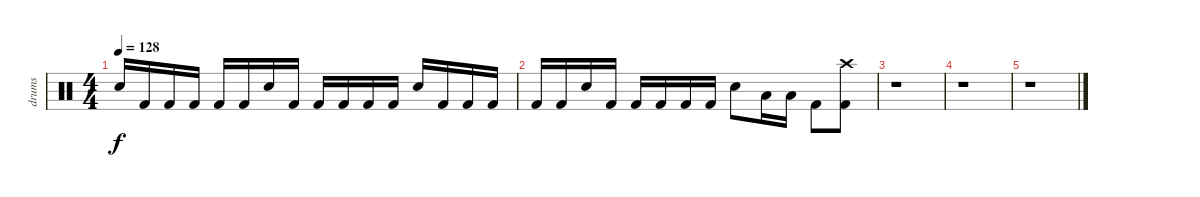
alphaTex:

\track ("drums" "drums") {instrument percussion}
\staff {score}
\articulation defaults
\ts (4 4)
\tempo 128
\clef neutral
\ks c "Electric Snare (hit)".16{dy f} "Kick (hit) 2".16 "Kick (hit) 2".16 "Kick (hit) 2".16 "Kick (hit) 2".16 "Kick (hit) 2".16 "Electric Snare (hit)".16 "Kick (hit) 2".16 "Kick (hit) 2".16 "Kick (hit) 2".16 "Kick (hit) 2".16 "Kick (hit) 2".16 "Electric Snare (hit)".16 "Kick (hit) 2".16 "Kick (hit) 2".16 "Kick (hit) 2".16
|
"Kick (hit) 2".16 "Kick (hit) 2".16 "Electric Snare (hit)".16 "Kick (hit) 2".16 "Kick (hit) 2".16 "Kick (hit) 2".16 "Kick (hit) 2".16 "Kick (hit) 2".16 "Electric Snare (hit)".8 "Low Tom (hit)".16 "Low Tom (hit)".16 "Kick (hit) 2".8 ("Crash high (hit)" "Kick (hit) 2").8 |
r.1 |
r.1 |
r.1
